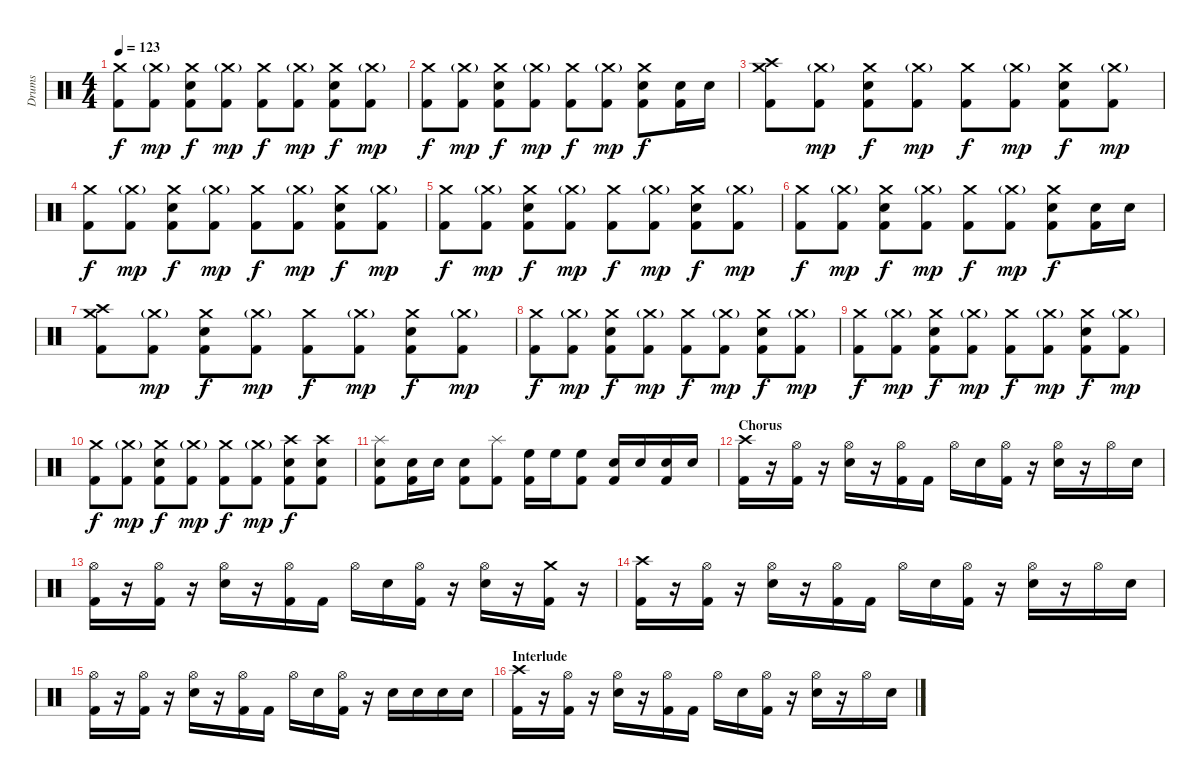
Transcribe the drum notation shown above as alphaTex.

\track ("Drums" "Drums") {instrument percussion}
\staff {score}
\articulation defaults
\ts (4 4)
\tempo 123
\clef neutral
\ks c
("Crash medium (hit)" "Kick (hit) 2").8{dy f} ("Crash medium (hit)"{g} "Kick (hit) 2").8{dy mp} ("Crash medium (hit)" "Electric Snare (hit)" "Kick (hit) 2").8{dy f} ("Crash medium (hit)"{g} "Kick (hit) 2").8{dy mp} ("Crash medium (hit)" "Kick (hit) 2").8{dy f} ("Crash medium (hit)"{g} "Kick (hit) 2").8{dy mp} ("Crash medium (hit)" "Electric Snare (hit)" "Kick (hit) 2").8{dy f} ("Crash medium (hit)"{g} "Kick (hit) 2").8{dy mp} |
("Crash medium (hit)" "Kick (hit) 2").8{dy f} ("Crash medium (hit)"{g} "Kick (hit) 2").8{dy mp} ("Crash medium (hit)" "Electric Snare (hit)" "Kick (hit) 2").8{dy f} ("Crash medium (hit)"{g} "Kick (hit) 2").8{dy mp} ("Crash medium (hit)" "Kick (hit) 2").8{dy f} ("Crash medium (hit)"{g} "Kick (hit) 2").8{dy mp} ("Crash medium (hit)" "Electric Snare (hit)" "Kick (hit) 2").8{dy f} ("Electric Snare (hit)" "Kick (hit) 2").16 "Electric Snare (hit)".16 |
("Crash medium (hit)" "Crash high (hit)" "Kick (hit) 2").8 ("Crash medium (hit)"{g} "Kick (hit) 2").8{dy mp} ("Crash medium (hit)" "Electric Snare (hit)" "Kick (hit) 2").8{dy f} ("Crash medium (hit)"{g} "Kick (hit) 2").8{dy mp} ("Crash medium (hit)" "Kick (hit) 2").8{dy f} ("Crash medium (hit)"{g} "Kick (hit) 2").8{dy mp} ("Crash medium (hit)" "Electric Snare (hit)" "Kick (hit) 2").8{dy f} ("Crash medium (hit)"{g} "Kick (hit) 2").8{dy mp} |
("Crash medium (hit)" "Kick (hit) 2").8{dy f} ("Crash medium (hit)"{g} "Kick (hit) 2").8{dy mp} ("Crash medium (hit)" "Electric Snare (hit)" "Kick (hit) 2").8{dy f} ("Crash medium (hit)"{g} "Kick (hit) 2").8{dy mp} ("Crash medium (hit)" "Kick (hit) 2").8{dy f} ("Crash medium (hit)"{g} "Kick (hit) 2").8{dy mp} ("Crash medium (hit)" "Electric Snare (hit)" "Kick (hit) 2").8{dy f} ("Crash medium (hit)"{g} "Kick (hit) 2").8{dy mp} |
("Crash medium (hit)" "Kick (hit) 2").8{dy f} ("Crash medium (hit)"{g} "Kick (hit) 2").8{dy mp} ("Crash medium (hit)" "Electric Snare (hit)" "Kick (hit) 2").8{dy f} ("Crash medium (hit)"{g} "Kick (hit) 2").8{dy mp} ("Crash medium (hit)" "Kick (hit) 2").8{dy f} ("Crash medium (hit)"{g} "Kick (hit) 2").8{dy mp} ("Crash medium (hit)" "Electric Snare (hit)" "Kick (hit) 2").8{dy f} ("Crash medium (hit)"{g} "Kick (hit) 2").8{dy mp} |
("Crash medium (hit)" "Kick (hit) 2").8{dy f} ("Crash medium (hit)"{g} "Kick (hit) 2").8{dy mp} ("Crash medium (hit)" "Electric Snare (hit)" "Kick (hit) 2").8{dy f} ("Crash medium (hit)"{g} "Kick (hit) 2").8{dy mp} ("Crash medium (hit)" "Kick (hit) 2").8{dy f} ("Crash medium (hit)"{g} "Kick (hit) 2").8{dy mp} ("Crash medium (hit)" "Electric Snare (hit)" "Kick (hit) 2").8{dy f} ("Electric Snare (hit)" "Kick (hit) 2").16 "Electric Snare (hit)".16 |
("Crash medium (hit)" "Crash high (hit)" "Kick (hit) 2").8 ("Crash medium (hit)"{g} "Kick (hit) 2").8{dy mp} ("Crash medium (hit)" "Electric Snare (hit)" "Kick (hit) 2").8{dy f} ("Crash medium (hit)"{g} "Kick (hit) 2").8{dy mp} ("Crash medium (hit)" "Kick (hit) 2").8{dy f} ("Crash medium (hit)"{g} "Kick (hit) 2").8{dy mp} ("Crash medium (hit)" "Electric Snare (hit)" "Kick (hit) 2").8{dy f} ("Crash medium (hit)"{g} "Kick (hit) 2").8{dy mp} |
("Crash medium (hit)" "Kick (hit) 2").8{dy f} ("Crash medium (hit)"{g} "Kick (hit) 2").8{dy mp} ("Crash medium (hit)" "Electric Snare (hit)" "Kick (hit) 2").8{dy f} ("Crash medium (hit)"{g} "Kick (hit) 2").8{dy mp} ("Crash medium (hit)" "Kick (hit) 2").8{dy f} ("Crash medium (hit)"{g} "Kick (hit) 2").8{dy mp} ("Crash medium (hit)" "Electric Snare (hit)" "Kick (hit) 2").8{dy f} ("Crash medium (hit)"{g} "Kick (hit) 2").8{dy mp} |
("Crash medium (hit)" "Kick (hit) 2").8{dy f} ("Crash medium (hit)"{g} "Kick (hit) 2").8{dy mp} ("Crash medium (hit)" "Electric Snare (hit)" "Kick (hit) 2").8{dy f} ("Crash medium (hit)"{g} "Kick (hit) 2").8{dy mp} ("Crash medium (hit)" "Kick (hit) 2").8{dy f} ("Crash medium (hit)"{g} "Kick (hit) 2").8{dy mp} ("Crash medium (hit)" "Electric Snare (hit)" "Kick (hit) 2").8{dy f} ("Crash medium (hit)"{g} "Kick (hit) 2").8{dy mp} |
("Crash medium (hit)" "Kick (hit) 2").8{dy f} ("Crash medium (hit)"{g} "Kick (hit) 2").8{dy mp} ("Crash medium (hit)" "Electric Snare (hit)" "Kick (hit) 2").8{dy f} ("Crash medium (hit)"{g} "Kick (hit) 2").8{dy mp} ("Crash medium (hit)" "Kick (hit) 2").8{dy f} ("Crash medium (hit)"{g} "Kick (hit) 2").8{dy mp} ("Crash high (hit)" "Electric Snare (hit)" "Kick (hit) 2").8{dy f} ("Crash high (hit)" "Electric Snare (hit)" "Kick (hit) 2").8 |
("Splash (hit)" "Electric Snare (hit)" "Kick (hit) 2").8 ("Electric Snare (hit)" "Kick (hit) 2").16 "Electric Snare (hit)".16 ("Electric Snare (hit)" "Kick (hit) 2").8 ("Splash (hit)" "Kick (hit) 2").8 ("High Floor Tom (hit)" "Kick (hit) 2").16 "High Floor Tom (hit)".16 ("High Floor Tom (hit)" "Kick (hit) 2").8 ("Electric Snare (hit)" "Kick (hit) 2").16 "Electric Snare (hit)".16 ("Electric Snare (hit)" "Kick (hit) 2").16 "Electric Snare (hit)".16 |
\section ("" "Chorus")
("Crash high (hit)" "Kick (hit) 2").16 r.16 ("Hi-Hat (open)" "Kick (hit) 2").16 r.16 ("Hi-Hat (open)" "Electric Snare (hit)").16 r.16 ("Hi-Hat (open)" "Kick (hit) 2").16 "Kick (hit) 2".16 "Hi-Hat (open)".16 "Electric Snare (hit)".16 ("Hi-Hat (open)" "Kick (hit) 2").16 r.16 ("Hi-Hat (open)" "Electric Snare (hit)").16 r.16 "Hi-Hat (open)".16 "Electric Snare (hit)".16 |
("Hi-Hat (open)" "Kick (hit) 2").16 r.16 ("Hi-Hat (open)" "Kick (hit) 2").16 r.16 ("Hi-Hat (open)" "Electric Snare (hit)").16 r.16 ("Hi-Hat (open)" "Kick (hit) 2").16 "Kick (hit) 2".16 "Hi-Hat (open)".16 "Electric Snare (hit)".16 ("Hi-Hat (open)" "Kick (hit) 2").16 r.16 ("Hi-Hat (open)" "Electric Snare (hit)").16 r.16 ("Crash medium (hit)" "Kick (hit) 2").16 r.16 |
("Crash high (hit)" "Kick (hit) 2").16 r.16 ("Hi-Hat (open)" "Kick (hit) 2").16 r.16 ("Hi-Hat (open)" "Electric Snare (hit)").16 r.16 ("Hi-Hat (open)" "Kick (hit) 2").16 "Kick (hit) 2".16 "Hi-Hat (open)".16 "Electric Snare (hit)".16 ("Hi-Hat (open)" "Kick (hit) 2").16 r.16 ("Hi-Hat (open)" "Electric Snare (hit)").16 r.16 "Hi-Hat (open)".16 "Electric Snare (hit)".16 |
("Hi-Hat (open)" "Kick (hit) 2").16 r.16 ("Hi-Hat (open)" "Kick (hit) 2").16 r.16 ("Hi-Hat (open)" "Electric Snare (hit)").16 r.16 ("Hi-Hat (open)" "Kick (hit) 2").16 "Kick (hit) 2".16 "Hi-Hat (open)".16 "Electric Snare (hit)".16 ("Hi-Hat (open)" "Kick (hit) 2").16 r.16 "Electric Snare (hit)".16 "Electric Snare (hit)".16 "Electric Snare (hit)".16 "Electric Snare (hit)".16 |
\section ("" "Interlude")
("Crash high (hit)" "Kick (hit) 2").16 r.16 ("Hi-Hat (open)" "Kick (hit) 2").16 r.16 ("Hi-Hat (open)" "Electric Snare (hit)").16 r.16 ("Hi-Hat (open)" "Kick (hit) 2").16 "Kick (hit) 2".16 "Hi-Hat (open)".16 "Electric Snare (hit)".16 ("Hi-Hat (open)" "Kick (hit) 2").16 r.16 ("Hi-Hat (open)" "Electric Snare (hit)").16 r.16 "Hi-Hat (open)".16 "Electric Snare (hit)".16
